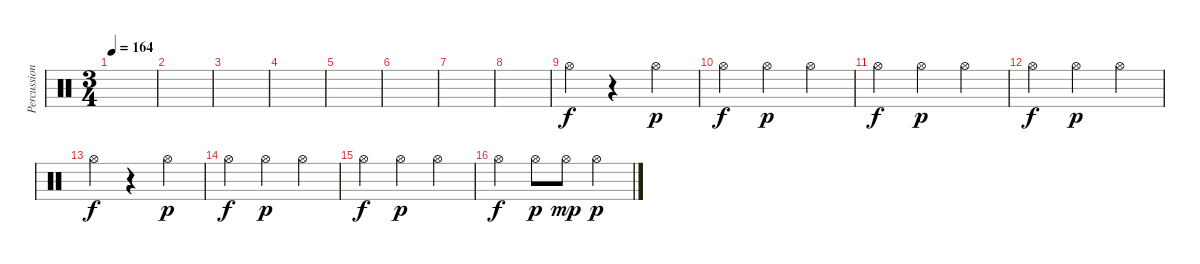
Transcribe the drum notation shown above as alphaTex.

\track ("Percussion" "Percussion") {instrument percussion}
\staff {score}
\articulation defaults
\ts (3 4)
\tempo 164
\clef neutral
\ks c
|
|
|
|
|
|
|
|
"Hi-Hat (open)".4 r.4 "Hi-Hat (open)".4{dy p} |
"Hi-Hat (open)".4{dy f} "Hi-Hat (open)".4{dy p} "Hi-Hat (open)".4 |
"Hi-Hat (open)".4{dy f} "Hi-Hat (open)".4{dy p} "Hi-Hat (open)".4 |
"Hi-Hat (open)".4{dy f} "Hi-Hat (open)".4{dy p} "Hi-Hat (open)".4 |
"Hi-Hat (open)".4{dy f} r.4 "Hi-Hat (open)".4{dy p} |
"Hi-Hat (open)".4{dy f} "Hi-Hat (open)".4{dy p} "Hi-Hat (open)".4 |
"Hi-Hat (open)".4{dy f} "Hi-Hat (open)".4{dy p} "Hi-Hat (open)".4 |
"Hi-Hat (open)".4{dy f} "Hi-Hat (open)".8{dy p} "Hi-Hat (open)".8{dy mp} "Hi-Hat (open)".4{dy p}
